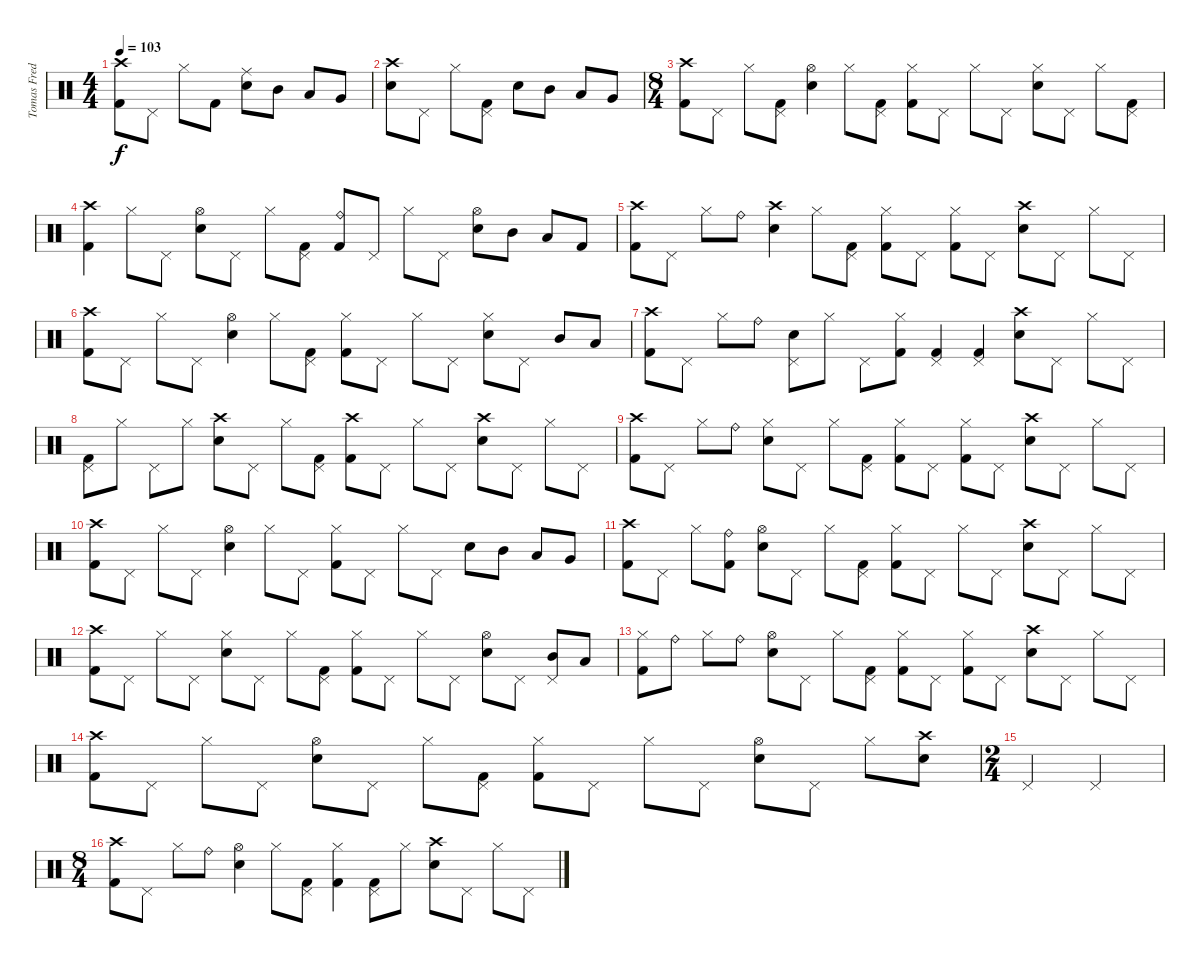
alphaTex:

\track ("Tomas Fredén - drums  " "Tomas Fred") {instrument percussion}
\staff {score}
\articulation defaults
\ts (4 4)
\tempo 103
\clef neutral
\ks c
("Crash high (hit)" "Kick (hit) 2").8{dy f} "Pedal Hi-Hat (hit)".8 "Hi-Hat (closed)".8 "Kick (hit) 2".8 ("Ride (middle)" "Snare (hit) 2").8 "Mid Tom (hit)".8 "Low Tom (hit)".8 "Very Low Tom (hit)".8 |
("Crash high (hit)" "Snare (hit) 2").8 "Pedal Hi-Hat (hit)".8 "Hi-Hat (closed)".8 ("Pedal Hi-Hat (hit)" "Kick (hit) 2").8 "Snare (hit) 2".8 "Mid Tom (hit)".8 "Low Tom (hit)".8 "Very Low Tom (hit)".8 |
\ts (8 4)
("Crash high (hit)" "Kick (hit) 2").8 "Pedal Hi-Hat (hit)".8 "Hi-Hat (closed)".8 ("Pedal Hi-Hat (hit)" "Kick (hit) 2").8 ("Hi-Hat (open)" "Snare (hit) 2").4 "Hi-Hat (closed)".8 ("Pedal Hi-Hat (hit)" "Kick (hit) 2").8 ("Hi-Hat (closed)" "Kick (hit) 2").8 "Pedal Hi-Hat (hit)".8 "Hi-Hat (closed)".8 "Pedal Hi-Hat (hit)".8 ("Hi-Hat (closed)" "Snare (hit) 2").8 "Pedal Hi-Hat (hit)".8 "Hi-Hat (closed)".8 ("Pedal Hi-Hat (hit)" "Kick (hit) 2").8 |
("Crash high (hit)" "Kick (hit) 2").4 "Hi-Hat (closed)".8 "Pedal Hi-Hat (hit)".8 ("Hi-Hat (open)" "Snare (hit) 2").8 "Pedal Hi-Hat (hit)".8 "Hi-Hat (closed)".8 ("Pedal Hi-Hat (hit)" "Kick (hit) 2").8 ("Ride (bell)" "Kick (hit) 2").8 "Pedal Hi-Hat (hit)".8 "Hi-Hat (closed)".8 "Pedal Hi-Hat (hit)".8 ("Hi-Hat (open)" "Snare (hit) 2").8 "Mid Tom (hit)".8 "Low Tom (hit)".8 "Kick (hit) 2".8 |
("Crash high (hit)" "Kick (hit) 2").8 "Pedal Hi-Hat (hit)".8 "Hi-Hat (closed)".8 "Ride (bell)".8 ("Crash high (hit)" "Snare (hit) 2").4 "Hi-Hat (closed)".8 ("Pedal Hi-Hat (hit)" "Kick (hit) 2").8 ("Hi-Hat (closed)" "Kick (hit) 2").8 "Pedal Hi-Hat (hit)".8 ("Hi-Hat (closed)" "Kick (hit) 2").8 "Pedal Hi-Hat (hit)".8 ("Crash high (hit)" "Snare (hit) 2").8 "Pedal Hi-Hat (hit)".8 "Hi-Hat (closed)".8 "Pedal Hi-Hat (hit)".8 |
("Crash high (hit)" "Kick (hit) 2").8 "Pedal Hi-Hat (hit)".8 "Hi-Hat (closed)".8 "Pedal Hi-Hat (hit)".8 ("Hi-Hat (open)" "Snare (hit) 2").4 "Hi-Hat (closed)".8 ("Pedal Hi-Hat (hit)" "Kick (hit) 2").8 ("Hi-Hat (closed)" "Kick (hit) 2").8 "Pedal Hi-Hat (hit)".8 "Hi-Hat (closed)".8 "Pedal Hi-Hat (hit)".8 ("Hi-Hat (closed)" "Snare (hit) 2").8 "Pedal Hi-Hat (hit)".8 "Mid Tom (hit)".8 "Low Tom (hit)".8 |
("Crash high (hit)" "Kick (hit) 2").8 "Pedal Hi-Hat (hit)".8 "Hi-Hat (closed)".8 "Ride (bell)".8 ("Pedal Hi-Hat (hit)" "Snare (hit) 2").8 "Hi-Hat (closed)".8 "Pedal Hi-Hat (hit)".8 ("Hi-Hat (closed)" "Kick (hit) 2").8 ("Pedal Hi-Hat (hit)" "Kick (hit) 2").4 ("Pedal Hi-Hat (hit)" "Kick (hit) 2").4 ("Crash high (hit)" "Snare (hit) 2").8 "Pedal Hi-Hat (hit)".8 "Hi-Hat (closed)".8 "Pedal Hi-Hat (hit)".8 |
("Pedal Hi-Hat (hit)" "Kick (hit) 2").8 "Hi-Hat (closed)".8 "Pedal Hi-Hat (hit)".8 "Hi-Hat (closed)".8 ("Crash high (hit)" "Snare (hit) 2").8 "Pedal Hi-Hat (hit)".8 "Hi-Hat (closed)".8 ("Pedal Hi-Hat (hit)" "Kick (hit) 2").8 ("Crash high (hit)" "Kick (hit) 2").8 "Pedal Hi-Hat (hit)".8 "Hi-Hat (closed)".8 "Pedal Hi-Hat (hit)".8 ("Crash high (hit)" "Snare (hit) 2").8 "Pedal Hi-Hat (hit)".8 "Hi-Hat (closed)".8 "Pedal Hi-Hat (hit)".8 |
("Crash high (hit)" "Kick (hit) 2").8 "Pedal Hi-Hat (hit)".8 "Hi-Hat (closed)".8 "Ride (bell)".8 ("Hi-Hat (closed)" "Snare (hit) 2").8 "Pedal Hi-Hat (hit)".8 "Hi-Hat (closed)".8 ("Pedal Hi-Hat (hit)" "Kick (hit) 2").8 ("Hi-Hat (closed)" "Kick (hit) 2").8 "Pedal Hi-Hat (hit)".8 ("Hi-Hat (closed)" "Kick (hit) 2").8 "Pedal Hi-Hat (hit)".8 ("Crash high (hit)" "Snare (hit) 2").8 "Pedal Hi-Hat (hit)".8 "Hi-Hat (closed)".8 "Pedal Hi-Hat (hit)".8 |
("Crash high (hit)" "Kick (hit) 2").8 "Pedal Hi-Hat (hit)".8 "Hi-Hat (closed)".8 "Pedal Hi-Hat (hit)".8 ("Hi-Hat (open)" "Snare (hit) 2").4 "Hi-Hat (closed)".8 "Pedal Hi-Hat (hit)".8 ("Hi-Hat (closed)" "Kick (hit) 2").8 "Pedal Hi-Hat (hit)".8 "Hi-Hat (closed)".8 "Pedal Hi-Hat (hit)".8 "Snare (hit) 2".8 "Mid Tom (hit)".8 "Low Tom (hit)".8 "Very Low Tom (hit)".8 |
("Crash high (hit)" "Kick (hit) 2").8 "Pedal Hi-Hat (hit)".8 "Hi-Hat (closed)".8 ("Ride (bell)" "Kick (hit) 2").8 ("Hi-Hat (open)" "Snare (hit) 2").8 "Pedal Hi-Hat (hit)".8 "Hi-Hat (closed)".8 ("Pedal Hi-Hat (hit)" "Kick (hit) 2").8 ("Hi-Hat (closed)" "Kick (hit) 2").8 "Pedal Hi-Hat (hit)".8 "Hi-Hat (closed)".8 "Pedal Hi-Hat (hit)".8 ("Crash high (hit)" "Snare (hit) 2").8 "Pedal Hi-Hat (hit)".8 "Hi-Hat (closed)".8 "Pedal Hi-Hat (hit)".8 |
("Crash high (hit)" "Kick (hit) 2").8 "Pedal Hi-Hat (hit)".8 "Hi-Hat (closed)".8 "Pedal Hi-Hat (hit)".8 ("Hi-Hat (closed)" "Snare (hit) 2").8 "Pedal Hi-Hat (hit)".8 "Hi-Hat (closed)".8 ("Pedal Hi-Hat (hit)" "Kick (hit) 2").8 ("Hi-Hat (closed)" "Kick (hit) 2").8 "Pedal Hi-Hat (hit)".8 "Hi-Hat (closed)".8 "Pedal Hi-Hat (hit)".8 ("Hi-Hat (open)" "Snare (hit) 2").8 "Pedal Hi-Hat (hit)".8 ("Pedal Hi-Hat (hit)" "Mid Tom (hit)").8 "Low Tom (hit)".8 |
("Hi-Hat (closed)" "Kick (hit) 2").8 "Ride (bell)".8 "Hi-Hat (closed)".8 "Ride (bell)".8 ("Hi-Hat (open)" "Snare (hit) 2").8 "Pedal Hi-Hat (hit)".8 "Hi-Hat (closed)".8 ("Pedal Hi-Hat (hit)" "Kick (hit) 2").8 ("Hi-Hat (closed)" "Kick (hit) 2").8 "Pedal Hi-Hat (hit)".8 ("Hi-Hat (closed)" "Kick (hit) 2").8 "Pedal Hi-Hat (hit)".8 ("Crash high (hit)" "Snare (hit) 2").8 "Pedal Hi-Hat (hit)".8 "Hi-Hat (closed)".8 "Pedal Hi-Hat (hit)".8 |
("Crash high (hit)" "Kick (hit) 2").8 "Pedal Hi-Hat (hit)".8 "Hi-Hat (closed)".8 "Pedal Hi-Hat (hit)".8 ("Hi-Hat (open)" "Snare (hit) 2").8 "Pedal Hi-Hat (hit)".8 "Hi-Hat (closed)".8 ("Pedal Hi-Hat (hit)" "Kick (hit) 2").8 ("Hi-Hat (closed)" "Kick (hit) 2").8 "Pedal Hi-Hat (hit)".8 "Hi-Hat (closed)".8 "Pedal Hi-Hat (hit)".8 ("Hi-Hat (open)" "Snare (hit) 2").8 "Pedal Hi-Hat (hit)".8 "Hi-Hat (closed)".8 ("Crash high (hit)" "Snare (hit) 2").8 |
\ts (2 4)
"Pedal Hi-Hat (hit)".4 "Pedal Hi-Hat (hit)".4 |
\ts (8 4)
("Crash high (hit)" "Kick (hit) 2").8 "Pedal Hi-Hat (hit)".8 "Hi-Hat (closed)".8 "Ride (bell)".8 ("Hi-Hat (open)" "Snare (hit) 2").4 "Hi-Hat (closed)".8 ("Pedal Hi-Hat (hit)" "Kick (hit) 2").8 ("Hi-Hat (closed)" "Kick (hit) 2").4 ("Pedal Hi-Hat (hit)" "Kick (hit) 2").8 "Hi-Hat (closed)".8 ("Crash high (hit)" "Snare (hit) 2").8 "Pedal Hi-Hat (hit)".8 "Hi-Hat (closed)".8 "Pedal Hi-Hat (hit)".8
